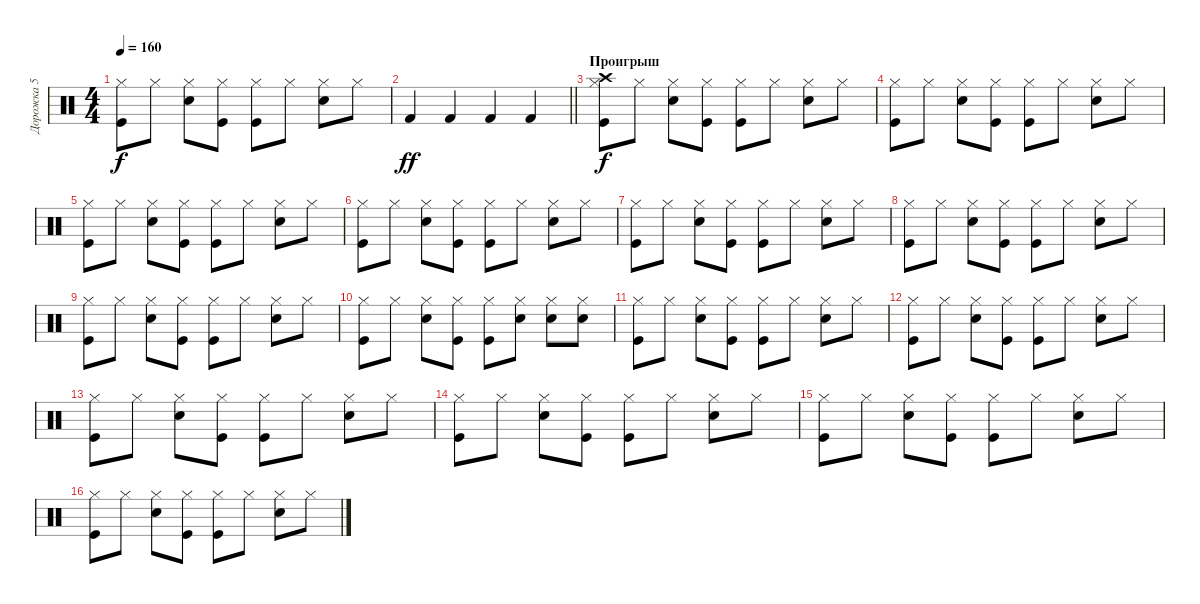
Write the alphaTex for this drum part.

\track ("Дорожка 5" "Дорожка 5") {solo instrument percussion}
\staff {score}
\articulation defaults
\ts (4 4)
\tempo 160
\clef neutral
\ks c
("Kick (hit)" "Hi-Hat (closed)").8{dy f} "Hi-Hat (closed)".8 ("Hi-Hat (closed)" "Snare (hit) 2").8 ("Kick (hit)" "Hi-Hat (closed)").8 ("Kick (hit)" "Hi-Hat (closed)").8 "Hi-Hat (closed)".8 ("Hi-Hat (closed)" "Snare (hit) 2").8 "Hi-Hat (closed)".8 |
\barLineRight lightlight "Kick (hit) 2".4{dy ff} "Kick (hit) 2".4 "Kick (hit) 2".4 "Kick (hit) 2".4
|
\section ("" "Проигрыш")
("Kick (hit)" "Hi-Hat (closed)" "Crash high (hit)").8{dy f} "Hi-Hat (closed)".8 ("Hi-Hat (closed)" "Snare (hit) 2").8 ("Kick (hit)" "Hi-Hat (closed)").8 ("Kick (hit)" "Hi-Hat (closed)").8 "Hi-Hat (closed)".8 ("Hi-Hat (closed)" "Snare (hit) 2").8 "Hi-Hat (closed)".8 |
("Kick (hit)" "Hi-Hat (closed)").8 "Hi-Hat (closed)".8 ("Hi-Hat (closed)" "Snare (hit) 2").8 ("Kick (hit)" "Hi-Hat (closed)").8 ("Kick (hit)" "Hi-Hat (closed)").8 "Hi-Hat (closed)".8 ("Hi-Hat (closed)" "Snare (hit) 2").8 "Hi-Hat (closed)".8 |
("Kick (hit)" "Hi-Hat (closed)").8 "Hi-Hat (closed)".8 ("Hi-Hat (closed)" "Snare (hit) 2").8 ("Kick (hit)" "Hi-Hat (closed)").8 ("Kick (hit)" "Hi-Hat (closed)").8 "Hi-Hat (closed)".8 ("Hi-Hat (closed)" "Snare (hit) 2").8 "Hi-Hat (closed)".8 |
("Kick (hit)" "Hi-Hat (closed)").8 "Hi-Hat (closed)".8 ("Hi-Hat (closed)" "Snare (hit) 2").8 ("Kick (hit)" "Hi-Hat (closed)").8 ("Kick (hit)" "Hi-Hat (closed)").8 "Hi-Hat (closed)".8 ("Hi-Hat (closed)" "Snare (hit) 2").8 "Hi-Hat (closed)".8 |
("Kick (hit)" "Hi-Hat (closed)").8 "Hi-Hat (closed)".8 ("Hi-Hat (closed)" "Snare (hit) 2").8 ("Kick (hit)" "Hi-Hat (closed)").8 ("Kick (hit)" "Hi-Hat (closed)").8 "Hi-Hat (closed)".8 ("Hi-Hat (closed)" "Snare (hit) 2").8 "Hi-Hat (closed)".8 |
("Kick (hit)" "Hi-Hat (closed)").8 "Hi-Hat (closed)".8 ("Hi-Hat (closed)" "Snare (hit) 2").8 ("Kick (hit)" "Hi-Hat (closed)").8 ("Kick (hit)" "Hi-Hat (closed)").8 "Hi-Hat (closed)".8 ("Hi-Hat (closed)" "Snare (hit) 2").8 "Hi-Hat (closed)".8 |
("Kick (hit)" "Hi-Hat (closed)").8 "Hi-Hat (closed)".8 ("Hi-Hat (closed)" "Snare (hit) 2").8 ("Kick (hit)" "Hi-Hat (closed)").8 ("Kick (hit)" "Hi-Hat (closed)").8 "Hi-Hat (closed)".8 ("Hi-Hat (closed)" "Snare (hit) 2").8 "Hi-Hat (closed)".8 |
("Kick (hit)" "Hi-Hat (closed)").8 "Hi-Hat (closed)".8 ("Hi-Hat (closed)" "Snare (hit) 2").8 ("Kick (hit)" "Hi-Hat (closed)").8 ("Kick (hit)" "Hi-Hat (closed)").8 ("Hi-Hat (closed)" "Snare (hit) 2").8 ("Hi-Hat (closed)" "Snare (hit) 2").8 ("Hi-Hat (closed)" "Snare (hit) 2").8 |
("Kick (hit)" "Hi-Hat (closed)").8 "Hi-Hat (closed)".8 ("Hi-Hat (closed)" "Snare (hit) 2").8 ("Kick (hit)" "Hi-Hat (closed)").8 ("Kick (hit)" "Hi-Hat (closed)").8 "Hi-Hat (closed)".8 ("Hi-Hat (closed)" "Snare (hit) 2").8 "Hi-Hat (closed)".8 |
("Kick (hit)" "Hi-Hat (closed)").8 "Hi-Hat (closed)".8 ("Hi-Hat (closed)" "Snare (hit) 2").8 ("Kick (hit)" "Hi-Hat (closed)").8 ("Kick (hit)" "Hi-Hat (closed)").8 "Hi-Hat (closed)".8 ("Hi-Hat (closed)" "Snare (hit) 2").8 "Hi-Hat (closed)".8 |
("Kick (hit)" "Hi-Hat (closed)").8 "Hi-Hat (closed)".8 ("Hi-Hat (closed)" "Snare (hit) 2").8 ("Kick (hit)" "Hi-Hat (closed)").8 ("Kick (hit)" "Hi-Hat (closed)").8 "Hi-Hat (closed)".8 ("Hi-Hat (closed)" "Snare (hit) 2").8 "Hi-Hat (closed)".8 |
("Kick (hit)" "Hi-Hat (closed)").8 "Hi-Hat (closed)".8 ("Hi-Hat (closed)" "Snare (hit) 2").8 ("Kick (hit)" "Hi-Hat (closed)").8 ("Kick (hit)" "Hi-Hat (closed)").8 "Hi-Hat (closed)".8 ("Hi-Hat (closed)" "Snare (hit) 2").8 "Hi-Hat (closed)".8 |
("Kick (hit)" "Hi-Hat (closed)").8 "Hi-Hat (closed)".8 ("Hi-Hat (closed)" "Snare (hit) 2").8 ("Kick (hit)" "Hi-Hat (closed)").8 ("Kick (hit)" "Hi-Hat (closed)").8 "Hi-Hat (closed)".8 ("Hi-Hat (closed)" "Snare (hit) 2").8 "Hi-Hat (closed)".8 |
("Kick (hit)" "Hi-Hat (closed)").8 "Hi-Hat (closed)".8 ("Hi-Hat (closed)" "Snare (hit) 2").8 ("Kick (hit)" "Hi-Hat (closed)").8 ("Kick (hit)" "Hi-Hat (closed)").8 "Hi-Hat (closed)".8 ("Hi-Hat (closed)" "Snare (hit) 2").8 "Hi-Hat (closed)".8
